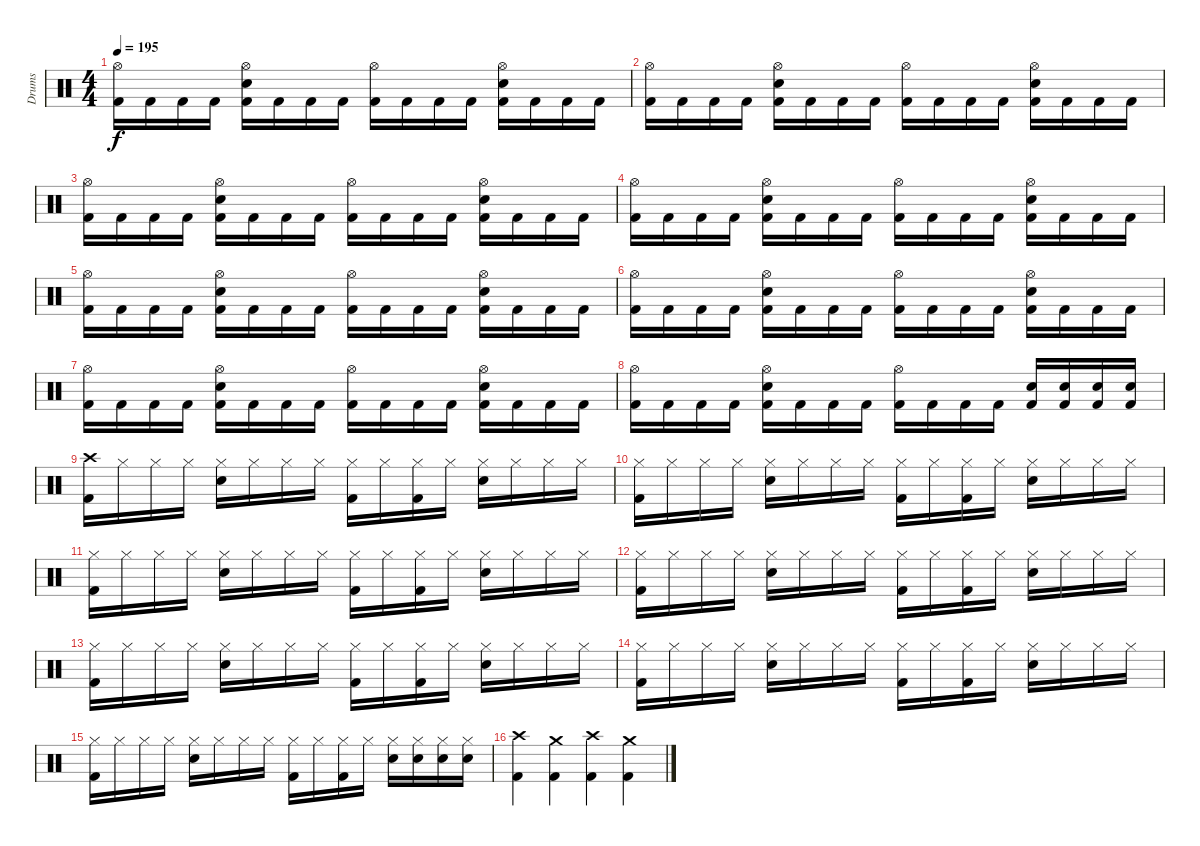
\track ("Drums" "Drums") {instrument percussion}
\staff {score}
\articulation defaults
\ts (4 4)
\tempo 195
\clef neutral
\ks c
("Hi-Hat (open)" "Kick (hit) 2").16{dy f} "Kick (hit) 2".16 "Kick (hit) 2".16 "Kick (hit) 2".16 ("Hi-Hat (open)" "Snare (hit) 2" "Kick (hit) 2").16 "Kick (hit) 2".16 "Kick (hit) 2".16 "Kick (hit) 2".16 ("Hi-Hat (open)" "Kick (hit) 2").16 "Kick (hit) 2".16 "Kick (hit) 2".16 "Kick (hit) 2".16 ("Hi-Hat (open)" "Snare (hit) 2" "Kick (hit) 2").16 "Kick (hit) 2".16 "Kick (hit) 2".16 "Kick (hit) 2".16 |
("Hi-Hat (open)" "Kick (hit) 2").16 "Kick (hit) 2".16 "Kick (hit) 2".16 "Kick (hit) 2".16 ("Hi-Hat (open)" "Snare (hit) 2" "Kick (hit) 2").16 "Kick (hit) 2".16 "Kick (hit) 2".16 "Kick (hit) 2".16 ("Hi-Hat (open)" "Kick (hit) 2").16 "Kick (hit) 2".16 "Kick (hit) 2".16 "Kick (hit) 2".16 ("Hi-Hat (open)" "Snare (hit) 2" "Kick (hit) 2").16 "Kick (hit) 2".16 "Kick (hit) 2".16 "Kick (hit) 2".16 |
("Hi-Hat (open)" "Kick (hit) 2").16 "Kick (hit) 2".16 "Kick (hit) 2".16 "Kick (hit) 2".16 ("Hi-Hat (open)" "Snare (hit) 2" "Kick (hit) 2").16 "Kick (hit) 2".16 "Kick (hit) 2".16 "Kick (hit) 2".16 ("Hi-Hat (open)" "Kick (hit) 2").16 "Kick (hit) 2".16 "Kick (hit) 2".16 "Kick (hit) 2".16 ("Hi-Hat (open)" "Snare (hit) 2" "Kick (hit) 2").16 "Kick (hit) 2".16 "Kick (hit) 2".16 "Kick (hit) 2".16 |
("Hi-Hat (open)" "Kick (hit) 2").16 "Kick (hit) 2".16 "Kick (hit) 2".16 "Kick (hit) 2".16 ("Hi-Hat (open)" "Snare (hit) 2" "Kick (hit) 2").16 "Kick (hit) 2".16 "Kick (hit) 2".16 "Kick (hit) 2".16 ("Hi-Hat (open)" "Kick (hit) 2").16 "Kick (hit) 2".16 "Kick (hit) 2".16 "Kick (hit) 2".16 ("Hi-Hat (open)" "Snare (hit) 2" "Kick (hit) 2").16 "Kick (hit) 2".16 "Kick (hit) 2".16 "Kick (hit) 2".16 |
("Hi-Hat (open)" "Kick (hit) 2").16 "Kick (hit) 2".16 "Kick (hit) 2".16 "Kick (hit) 2".16 ("Hi-Hat (open)" "Snare (hit) 2" "Kick (hit) 2").16 "Kick (hit) 2".16 "Kick (hit) 2".16 "Kick (hit) 2".16 ("Hi-Hat (open)" "Kick (hit) 2").16 "Kick (hit) 2".16 "Kick (hit) 2".16 "Kick (hit) 2".16 ("Hi-Hat (open)" "Snare (hit) 2" "Kick (hit) 2").16 "Kick (hit) 2".16 "Kick (hit) 2".16 "Kick (hit) 2".16 |
("Hi-Hat (open)" "Kick (hit) 2").16 "Kick (hit) 2".16 "Kick (hit) 2".16 "Kick (hit) 2".16 ("Hi-Hat (open)" "Snare (hit) 2" "Kick (hit) 2").16 "Kick (hit) 2".16 "Kick (hit) 2".16 "Kick (hit) 2".16 ("Hi-Hat (open)" "Kick (hit) 2").16 "Kick (hit) 2".16 "Kick (hit) 2".16 "Kick (hit) 2".16 ("Hi-Hat (open)" "Snare (hit) 2" "Kick (hit) 2").16 "Kick (hit) 2".16 "Kick (hit) 2".16 "Kick (hit) 2".16 |
("Hi-Hat (open)" "Kick (hit) 2").16 "Kick (hit) 2".16 "Kick (hit) 2".16 "Kick (hit) 2".16 ("Hi-Hat (open)" "Snare (hit) 2" "Kick (hit) 2").16 "Kick (hit) 2".16 "Kick (hit) 2".16 "Kick (hit) 2".16 ("Hi-Hat (open)" "Kick (hit) 2").16 "Kick (hit) 2".16 "Kick (hit) 2".16 "Kick (hit) 2".16 ("Hi-Hat (open)" "Snare (hit) 2" "Kick (hit) 2").16 "Kick (hit) 2".16 "Kick (hit) 2".16 "Kick (hit) 2".16 |
("Hi-Hat (open)" "Kick (hit) 2").16 "Kick (hit) 2".16 "Kick (hit) 2".16 "Kick (hit) 2".16 ("Hi-Hat (open)" "Snare (hit) 2" "Kick (hit) 2").16 "Kick (hit) 2".16 "Kick (hit) 2".16 "Kick (hit) 2".16 ("Hi-Hat (open)" "Kick (hit) 2").16 "Kick (hit) 2".16 "Kick (hit) 2".16 "Kick (hit) 2".16 ("Snare (hit) 2" "Kick (hit) 2").16 ("Snare (hit) 2" "Kick (hit) 2").16 ("Snare (hit) 2" "Kick (hit) 2").16 ("Snare (hit) 2" "Kick (hit) 2").16 |
("Crash high (hit)" "Kick (hit) 2").16 "Hi-Hat (closed)".16 "Hi-Hat (closed)".16 "Hi-Hat (closed)".16 ("Hi-Hat (closed)" "Snare (hit) 2").16 "Hi-Hat (closed)".16 "Hi-Hat (closed)".16 "Hi-Hat (closed)".16 ("Hi-Hat (closed)" "Kick (hit) 2").16 "Hi-Hat (closed)".16 ("Hi-Hat (closed)" "Kick (hit) 2").16 "Hi-Hat (closed)".16 ("Hi-Hat (closed)" "Snare (hit) 2").16 "Hi-Hat (closed)".16 "Hi-Hat (closed)".16 "Hi-Hat (closed)".16 |
("Hi-Hat (closed)" "Kick (hit) 2").16 "Hi-Hat (closed)".16 "Hi-Hat (closed)".16 "Hi-Hat (closed)".16 ("Hi-Hat (closed)" "Snare (hit) 2").16 "Hi-Hat (closed)".16 "Hi-Hat (closed)".16 "Hi-Hat (closed)".16 ("Hi-Hat (closed)" "Kick (hit) 2").16 "Hi-Hat (closed)".16 ("Hi-Hat (closed)" "Kick (hit) 2").16 "Hi-Hat (closed)".16 ("Hi-Hat (closed)" "Snare (hit) 2").16 "Hi-Hat (closed)".16 "Hi-Hat (closed)".16 "Hi-Hat (closed)".16 |
("Hi-Hat (closed)" "Kick (hit) 2").16 "Hi-Hat (closed)".16 "Hi-Hat (closed)".16 "Hi-Hat (closed)".16 ("Hi-Hat (closed)" "Snare (hit) 2").16 "Hi-Hat (closed)".16 "Hi-Hat (closed)".16 "Hi-Hat (closed)".16 ("Hi-Hat (closed)" "Kick (hit) 2").16 "Hi-Hat (closed)".16 ("Hi-Hat (closed)" "Kick (hit) 2").16 "Hi-Hat (closed)".16 ("Hi-Hat (closed)" "Snare (hit) 2").16 "Hi-Hat (closed)".16 "Hi-Hat (closed)".16 "Hi-Hat (closed)".16 |
("Hi-Hat (closed)" "Kick (hit) 2").16 "Hi-Hat (closed)".16 "Hi-Hat (closed)".16 "Hi-Hat (closed)".16 ("Hi-Hat (closed)" "Snare (hit) 2").16 "Hi-Hat (closed)".16 "Hi-Hat (closed)".16 "Hi-Hat (closed)".16 ("Hi-Hat (closed)" "Kick (hit) 2").16 "Hi-Hat (closed)".16 ("Hi-Hat (closed)" "Kick (hit) 2").16 "Hi-Hat (closed)".16 ("Hi-Hat (closed)" "Snare (hit) 2").16 "Hi-Hat (closed)".16 "Hi-Hat (closed)".16 "Hi-Hat (closed)".16 |
("Hi-Hat (closed)" "Kick (hit) 2").16 "Hi-Hat (closed)".16 "Hi-Hat (closed)".16 "Hi-Hat (closed)".16 ("Hi-Hat (closed)" "Snare (hit) 2").16 "Hi-Hat (closed)".16 "Hi-Hat (closed)".16 "Hi-Hat (closed)".16 ("Hi-Hat (closed)" "Kick (hit) 2").16 "Hi-Hat (closed)".16 ("Hi-Hat (closed)" "Kick (hit) 2").16 "Hi-Hat (closed)".16 ("Hi-Hat (closed)" "Snare (hit) 2").16 "Hi-Hat (closed)".16 "Hi-Hat (closed)".16 "Hi-Hat (closed)".16 |
("Hi-Hat (closed)" "Kick (hit) 2").16 "Hi-Hat (closed)".16 "Hi-Hat (closed)".16 "Hi-Hat (closed)".16 ("Hi-Hat (closed)" "Snare (hit) 2").16 "Hi-Hat (closed)".16 "Hi-Hat (closed)".16 "Hi-Hat (closed)".16 ("Hi-Hat (closed)" "Kick (hit) 2").16 "Hi-Hat (closed)".16 ("Hi-Hat (closed)" "Kick (hit) 2").16 "Hi-Hat (closed)".16 ("Hi-Hat (closed)" "Snare (hit) 2").16 "Hi-Hat (closed)".16 "Hi-Hat (closed)".16 "Hi-Hat (closed)".16 |
("Hi-Hat (closed)" "Kick (hit) 2").16 "Hi-Hat (closed)".16 "Hi-Hat (closed)".16 "Hi-Hat (closed)".16 ("Hi-Hat (closed)" "Snare (hit) 2").16 "Hi-Hat (closed)".16 "Hi-Hat (closed)".16 "Hi-Hat (closed)".16 ("Hi-Hat (closed)" "Kick (hit) 2").16 "Hi-Hat (closed)".16 ("Hi-Hat (closed)" "Kick (hit) 2").16 "Hi-Hat (closed)".16 ("Hi-Hat (closed)" "Snare (hit) 2").16 ("Hi-Hat (closed)" "Snare (hit) 2").16 ("Hi-Hat (closed)" "Snare (hit) 2").16 ("Hi-Hat (closed)" "Snare (hit) 2").16 |
("Crash high (hit)" "Kick (hit) 2").4 ("Crash medium (hit)" "Kick (hit) 2").4 ("Crash high (hit)" "Kick (hit) 2").4 ("Crash medium (hit)" "Kick (hit) 2").4
